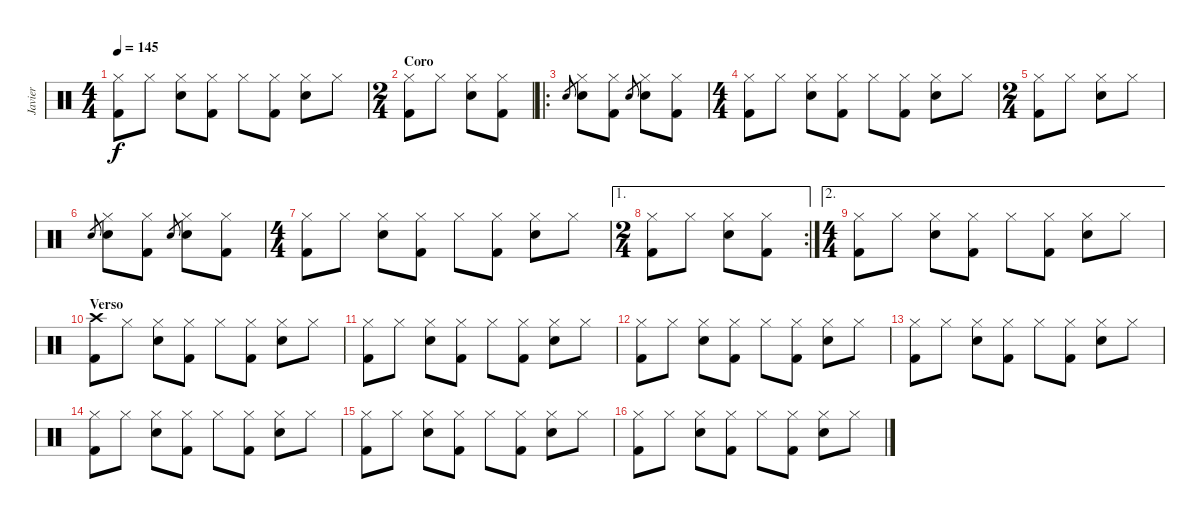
\track ("Javier" "Javier") {instrument percussion}
\staff {score}
\articulation defaults
\ts (4 4)
\tempo 145
\clef neutral
\ks c
("Hi-Hat (closed)" "Kick (hit) 2").8{dy f} "Hi-Hat (closed)".8 ("Hi-Hat (closed)" "Snare (hit) 2").8 ("Hi-Hat (closed)" "Kick (hit) 2").8 "Hi-Hat (closed)".8 ("Hi-Hat (closed)" "Kick (hit) 2").8 ("Hi-Hat (closed)" "Snare (hit) 2").8 "Hi-Hat (closed)".8 |
\ts (2 4)
\section ("" "Coro")
("Hi-Hat (closed)" "Kick (hit) 2").8 "Hi-Hat (closed)".8 ("Hi-Hat (closed)" "Snare (hit) 2").8 ("Hi-Hat (closed)" "Kick (hit) 2").8 |
\ro "Snare (hit) 2".8{gr}
("Hi-Hat (closed)" "Snare (hit) 2").8 ("Hi-Hat (closed)" "Kick (hit) 2").8 "Snare (hit) 2".8{gr} ("Hi-Hat (closed)" "Snare (hit) 2").8 ("Hi-Hat (closed)" "Kick (hit) 2").8 |
\ts (4 4)
("Hi-Hat (closed)" "Kick (hit) 2").8 "Hi-Hat (closed)".8 ("Hi-Hat (closed)" "Snare (hit) 2").8 ("Hi-Hat (closed)" "Kick (hit) 2").8 "Hi-Hat (closed)".8 ("Hi-Hat (closed)" "Kick (hit) 2").8 ("Hi-Hat (closed)" "Snare (hit) 2").8 "Hi-Hat (closed)".8 |
\ts (2 4)
("Hi-Hat (closed)" "Kick (hit) 2").8 "Hi-Hat (closed)".8 ("Hi-Hat (closed)" "Snare (hit) 2").8 "Hi-Hat (closed)".8 |
"Snare (hit) 2".8{gr} ("Hi-Hat (closed)" "Snare (hit) 2").8 ("Hi-Hat (closed)" "Kick (hit) 2").8 "Snare (hit) 2".8{gr} ("Hi-Hat (closed)" "Snare (hit) 2").8 ("Hi-Hat (closed)" "Kick (hit) 2").8 |
\ts (4 4)
("Hi-Hat (closed)" "Kick (hit) 2").8 "Hi-Hat (closed)".8 ("Hi-Hat (closed)" "Snare (hit) 2").8 ("Hi-Hat (closed)" "Kick (hit) 2").8 "Hi-Hat (closed)".8 ("Hi-Hat (closed)" "Kick (hit) 2").8 ("Hi-Hat (closed)" "Snare (hit) 2").8 "Hi-Hat (closed)".8 |
\ae 1
\rc 2
\ts (2 4)
("Hi-Hat (closed)" "Kick (hit) 2").8 "Hi-Hat (closed)".8 ("Hi-Hat (closed)" "Snare (hit) 2").8 ("Hi-Hat (closed)" "Kick (hit) 2").8 |
\ae 2
\ts (4 4)
("Hi-Hat (closed)" "Kick (hit) 2").8 "Hi-Hat (closed)".8 ("Hi-Hat (closed)" "Snare (hit) 2").8 ("Hi-Hat (closed)" "Kick (hit) 2").8 "Hi-Hat (closed)".8 ("Hi-Hat (closed)" "Kick (hit) 2").8 ("Hi-Hat (closed)" "Snare (hit) 2").8 "Hi-Hat (closed)".8 |
\section ("" "Verso")
("Crash high (hit)" "Kick (hit) 2").8 "Hi-Hat (closed)".8 ("Hi-Hat (closed)" "Snare (hit) 2").8 ("Hi-Hat (closed)" "Kick (hit) 2").8 "Hi-Hat (closed)".8 ("Hi-Hat (closed)" "Kick (hit) 2").8 ("Hi-Hat (closed)" "Snare (hit) 2").8 "Hi-Hat (closed)".8 |
("Hi-Hat (closed)" "Kick (hit) 2").8 "Hi-Hat (closed)".8 ("Hi-Hat (closed)" "Snare (hit) 2").8 ("Hi-Hat (closed)" "Kick (hit) 2").8 "Hi-Hat (closed)".8 ("Hi-Hat (closed)" "Kick (hit) 2").8 ("Hi-Hat (closed)" "Snare (hit) 2").8 "Hi-Hat (closed)".8 |
("Hi-Hat (closed)" "Kick (hit) 2").8 "Hi-Hat (closed)".8 ("Hi-Hat (closed)" "Snare (hit) 2").8 ("Hi-Hat (closed)" "Kick (hit) 2").8 "Hi-Hat (closed)".8 ("Hi-Hat (closed)" "Kick (hit) 2").8 ("Hi-Hat (closed)" "Snare (hit) 2").8 "Hi-Hat (closed)".8 |
("Hi-Hat (closed)" "Kick (hit) 2").8 "Hi-Hat (closed)".8 ("Hi-Hat (closed)" "Snare (hit) 2").8 ("Hi-Hat (closed)" "Kick (hit) 2").8 "Hi-Hat (closed)".8 ("Hi-Hat (closed)" "Kick (hit) 2").8 ("Hi-Hat (closed)" "Snare (hit) 2").8 "Hi-Hat (closed)".8 |
("Hi-Hat (closed)" "Kick (hit) 2").8 "Hi-Hat (closed)".8 ("Hi-Hat (closed)" "Snare (hit) 2").8 ("Hi-Hat (closed)" "Kick (hit) 2").8 "Hi-Hat (closed)".8 ("Hi-Hat (closed)" "Kick (hit) 2").8 ("Hi-Hat (closed)" "Snare (hit) 2").8 "Hi-Hat (closed)".8 |
("Hi-Hat (closed)" "Kick (hit) 2").8 "Hi-Hat (closed)".8 ("Hi-Hat (closed)" "Snare (hit) 2").8 ("Hi-Hat (closed)" "Kick (hit) 2").8 "Hi-Hat (closed)".8 ("Hi-Hat (closed)" "Kick (hit) 2").8 ("Hi-Hat (closed)" "Snare (hit) 2").8 "Hi-Hat (closed)".8 |
("Hi-Hat (closed)" "Kick (hit) 2").8 "Hi-Hat (closed)".8 ("Hi-Hat (closed)" "Snare (hit) 2").8 ("Hi-Hat (closed)" "Kick (hit) 2").8 "Hi-Hat (closed)".8 ("Hi-Hat (closed)" "Kick (hit) 2").8 ("Hi-Hat (closed)" "Snare (hit) 2").8 "Hi-Hat (closed)".8
